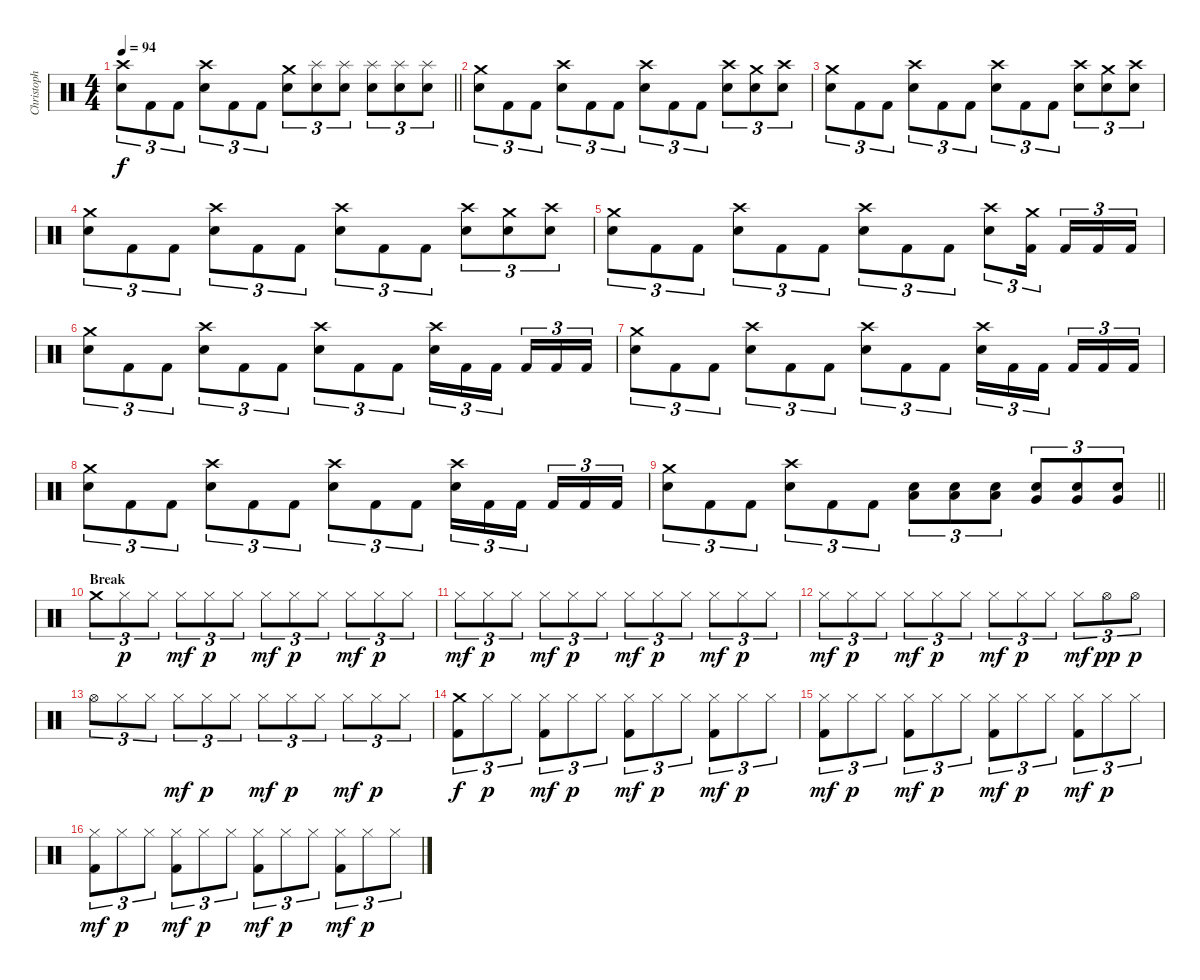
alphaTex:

\track ("Christoph Schneider [Drums]" "Christoph ") {instrument percussion}
\staff {score}
\articulation defaults
\ts (4 4)
\tempo 94
\clef neutral
\barLineRight lightlight
\ks c
("Crash high (hit)" "Electric Snare (hit)").8{tu (3 2) dy f} "Kick (hit) 2".8{tu (3 2)} "Kick (hit) 2".8{tu (3 2)} ("Crash high (hit)" "Electric Snare (hit)").8{tu (3 2)} "Kick (hit) 2".8{tu (3 2)} "Kick (hit) 2".8{tu (3 2)} ("Crash medium (hit)" "Electric Snare (hit)").8{tu (3 2)} ("Splash (hit)" "Electric Snare (hit)").8{tu (3 2)} ("Splash (hit)" "Electric Snare (hit)").8{tu (3 2)} ("Splash (hit)" "Electric Snare (hit)").8{tu (3 2)} ("Splash (hit)" "Electric Snare (hit)").8{tu (3 2)} ("Splash (hit)" "Electric Snare (hit)").8{tu (3 2)} |
\section ("" "")
("Crash medium (hit)" "Electric Snare (hit)").8{tu (3 2)} "Kick (hit) 2".8{tu (3 2)} "Kick (hit) 2".8{tu (3 2)} ("Crash high (hit)" "Electric Snare (hit)").8{tu (3 2)} "Kick (hit) 2".8{tu (3 2)} "Kick (hit) 2".8{tu (3 2)} ("Crash high (hit)" "Electric Snare (hit)").8{tu (3 2)} "Kick (hit) 2".8{tu (3 2)} "Kick (hit) 2".8{tu (3 2)} ("Crash high (hit)" "Electric Snare (hit)").8{tu (3 2)} ("Crash medium (hit)" "Electric Snare (hit)").8{tu (3 2)} ("Crash high (hit)" "Electric Snare (hit)").8{tu (3 2)} |
("Crash medium (hit)" "Electric Snare (hit)").8{tu (3 2)} "Kick (hit) 2".8{tu (3 2)} "Kick (hit) 2".8{tu (3 2)} ("Crash high (hit)" "Electric Snare (hit)").8{tu (3 2)} "Kick (hit) 2".8{tu (3 2)} "Kick (hit) 2".8{tu (3 2)} ("Crash high (hit)" "Electric Snare (hit)").8{tu (3 2)} "Kick (hit) 2".8{tu (3 2)} "Kick (hit) 2".8{tu (3 2)} ("Crash high (hit)" "Electric Snare (hit)").8{tu (3 2)} ("Crash medium (hit)" "Electric Snare (hit)").8{tu (3 2)} ("Crash high (hit)" "Electric Snare (hit)").8{tu (3 2)} |
("Crash medium (hit)" "Electric Snare (hit)").8{tu (3 2)} "Kick (hit) 2".8{tu (3 2)} "Kick (hit) 2".8{tu (3 2)} ("Crash high (hit)" "Electric Snare (hit)").8{tu (3 2)} "Kick (hit) 2".8{tu (3 2)} "Kick (hit) 2".8{tu (3 2)} ("Crash high (hit)" "Electric Snare (hit)").8{tu (3 2)} "Kick (hit) 2".8{tu (3 2)} "Kick (hit) 2".8{tu (3 2)} ("Crash high (hit)" "Electric Snare (hit)").8{tu (3 2)} ("Crash medium (hit)" "Electric Snare (hit)").8{tu (3 2)} ("Crash high (hit)" "Electric Snare (hit)").8{tu (3 2)} |
("Crash medium (hit)" "Electric Snare (hit)").8{tu (3 2)} "Kick (hit) 2".8{tu (3 2)} "Kick (hit) 2".8{tu (3 2)} ("Crash high (hit)" "Electric Snare (hit)").8{tu (3 2)} "Kick (hit) 2".8{tu (3 2)} "Kick (hit) 2".8{tu (3 2)} ("Crash high (hit)" "Electric Snare (hit)").8{tu (3 2)} "Kick (hit) 2".8{tu (3 2)} "Kick (hit) 2".8{tu (3 2)} ("Crash high (hit)" "Electric Snare (hit)").8{tu (3 2)} ("Crash medium (hit)" "Kick (hit) 2").16{tu (3 2)} "Kick (hit) 2".16{tu (3 2)} "Kick (hit) 2".16{tu (3 2)} "Kick (hit) 2".16{tu (3 2)} |
("Crash medium (hit)" "Electric Snare (hit)").8{tu (3 2)} "Kick (hit) 2".8{tu (3 2)} "Kick (hit) 2".8{tu (3 2)} ("Crash high (hit)" "Electric Snare (hit)").8{tu (3 2)} "Kick (hit) 2".8{tu (3 2)} "Kick (hit) 2".8{tu (3 2)} ("Crash high (hit)" "Electric Snare (hit)").8{tu (3 2)} "Kick (hit) 2".8{tu (3 2)} "Kick (hit) 2".8{tu (3 2)} ("Crash high (hit)" "Electric Snare (hit)").16{tu (3 2)} "Kick (hit) 2".16{tu (3 2)} "Kick (hit) 2".16{tu (3 2)} "Kick (hit) 2".16{tu (3 2)} "Kick (hit) 2".16{tu (3 2)} "Kick (hit) 2".16{tu (3 2)} |
("Crash medium (hit)" "Electric Snare (hit)").8{tu (3 2)} "Kick (hit) 2".8{tu (3 2)} "Kick (hit) 2".8{tu (3 2)} ("Crash high (hit)" "Electric Snare (hit)").8{tu (3 2)} "Kick (hit) 2".8{tu (3 2)} "Kick (hit) 2".8{tu (3 2)} ("Crash high (hit)" "Electric Snare (hit)").8{tu (3 2)} "Kick (hit) 2".8{tu (3 2)} "Kick (hit) 2".8{tu (3 2)} ("Crash high (hit)" "Electric Snare (hit)").16{tu (3 2)} "Kick (hit) 2".16{tu (3 2)} "Kick (hit) 2".16{tu (3 2)} "Kick (hit) 2".16{tu (3 2)} "Kick (hit) 2".16{tu (3 2)} "Kick (hit) 2".16{tu (3 2)} |
("Crash medium (hit)" "Electric Snare (hit)").8{tu (3 2)} "Kick (hit) 2".8{tu (3 2)} "Kick (hit) 2".8{tu (3 2)} ("Crash high (hit)" "Electric Snare (hit)").8{tu (3 2)} "Kick (hit) 2".8{tu (3 2)} "Kick (hit) 2".8{tu (3 2)} ("Crash high (hit)" "Electric Snare (hit)").8{tu (3 2)} "Kick (hit) 2".8{tu (3 2)} "Kick (hit) 2".8{tu (3 2)} ("Crash high (hit)" "Electric Snare (hit)").16{tu (3 2)} "Kick (hit) 2".16{tu (3 2)} "Kick (hit) 2".16{tu (3 2)} "Kick (hit) 2".16{tu (3 2)} "Kick (hit) 2".16{tu (3 2)} "Kick (hit) 2".16{tu (3 2)} |
\barLineRight lightlight
("Crash medium (hit)" "Electric Snare (hit)").8{tu (3 2)} "Kick (hit) 2".8{tu (3 2)} "Kick (hit) 2".8{tu (3 2)} ("Crash high (hit)" "Electric Snare (hit)").8{tu (3 2)} "Kick (hit) 2".8{tu (3 2)} "Kick (hit) 2".8{tu (3 2)} ("Low Tom (hit)" "Electric Snare (hit)").8{tu (3 2)} ("Low Tom (hit)" "Electric Snare (hit)").8{tu (3 2)} ("Low Tom (hit)" "Electric Snare (hit)").8{tu (3 2)} ("Very Low Tom (hit)" "Electric Snare (hit)").8{tu (3 2)} ("Very Low Tom (hit)" "Electric Snare (hit)").8{tu (3 2)} ("Very Low Tom (hit)" "Electric Snare (hit)").8{tu (3 2)} |
\section ("" "Break")
"Crash medium (hit)".8{tu (3 2)} "Hi-Hat (closed)".8{tu (3 2) dy p} "Hi-Hat (closed)".8{tu (3 2)} "Hi-Hat (closed)".8{tu (3 2) dy mf} "Hi-Hat (closed)".8{tu (3 2) dy p} "Hi-Hat (closed)".8{tu (3 2)} "Hi-Hat (closed)".8{tu (3 2) dy mf} "Hi-Hat (closed)".8{tu (3 2) dy p} "Hi-Hat (closed)".8{tu (3 2)} "Hi-Hat (closed)".8{tu (3 2) dy mf} "Hi-Hat (closed)".8{tu (3 2) dy p} "Hi-Hat (closed)".8{tu (3 2)} |
"Hi-Hat (closed)".8{tu (3 2) dy mf} "Hi-Hat (closed)".8{tu (3 2) dy p} "Hi-Hat (closed)".8{tu (3 2)} "Hi-Hat (closed)".8{tu (3 2) dy mf} "Hi-Hat (closed)".8{tu (3 2) dy p} "Hi-Hat (closed)".8{tu (3 2)} "Hi-Hat (closed)".8{tu (3 2) dy mf} "Hi-Hat (closed)".8{tu (3 2) dy p} "Hi-Hat (closed)".8{tu (3 2)} "Hi-Hat (closed)".8{tu (3 2) dy mf} "Hi-Hat (closed)".8{tu (3 2) dy p} "Hi-Hat (closed)".8{tu (3 2)} |
"Hi-Hat (closed)".8{tu (3 2) dy mf} "Hi-Hat (closed)".8{tu (3 2) dy p} "Hi-Hat (closed)".8{tu (3 2)} "Hi-Hat (closed)".8{tu (3 2) dy mf} "Hi-Hat (closed)".8{tu (3 2) dy p} "Hi-Hat (closed)".8{tu (3 2)} "Hi-Hat (closed)".8{tu (3 2) dy mf} "Hi-Hat (closed)".8{tu (3 2) dy p} "Hi-Hat (closed)".8{tu (3 2)} "Hi-Hat (closed)".8{tu (3 2) dy mf} "Hi-Hat (open)".8{tu (3 2) dy pp} "Hi-Hat (open)".8{tu (3 2) dy p} |
"Hi-Hat (open)".8{tu (3 2)} "Hi-Hat (closed)".8{tu (3 2)} "Hi-Hat (closed)".8{tu (3 2)} "Hi-Hat (closed)".8{tu (3 2) dy mf} "Hi-Hat (closed)".8{tu (3 2) dy p} "Hi-Hat (closed)".8{tu (3 2)} "Hi-Hat (closed)".8{tu (3 2) dy mf} "Hi-Hat (closed)".8{tu (3 2) dy p} "Hi-Hat (closed)".8{tu (3 2)} "Hi-Hat (closed)".8{tu (3 2) dy mf} "Hi-Hat (closed)".8{tu (3 2) dy p} "Hi-Hat (closed)".8{tu (3 2)} |
("Crash medium (hit)" "Kick (hit) 2").8{tu (3 2) dy f} "Hi-Hat (closed)".8{tu (3 2) dy p} "Hi-Hat (closed)".8{tu (3 2)} ("Hi-Hat (closed)" "Kick (hit) 2").8{tu (3 2) dy mf} "Hi-Hat (closed)".8{tu (3 2) dy p} "Hi-Hat (closed)".8{tu (3 2)} ("Hi-Hat (closed)" "Kick (hit) 2").8{tu (3 2) dy mf} "Hi-Hat (closed)".8{tu (3 2) dy p} "Hi-Hat (closed)".8{tu (3 2)} ("Hi-Hat (closed)" "Kick (hit) 2").8{tu (3 2) dy mf} "Hi-Hat (closed)".8{tu (3 2) dy p} "Hi-Hat (closed)".8{tu (3 2)} |
("Hi-Hat (closed)" "Kick (hit) 2").8{tu (3 2) dy mf} "Hi-Hat (closed)".8{tu (3 2) dy p} "Hi-Hat (closed)".8{tu (3 2)} ("Hi-Hat (closed)" "Kick (hit) 2").8{tu (3 2) dy mf} "Hi-Hat (closed)".8{tu (3 2) dy p} "Hi-Hat (closed)".8{tu (3 2)} ("Hi-Hat (closed)" "Kick (hit) 2").8{tu (3 2) dy mf} "Hi-Hat (closed)".8{tu (3 2) dy p} "Hi-Hat (closed)".8{tu (3 2)} ("Hi-Hat (closed)" "Kick (hit) 2").8{tu (3 2) dy mf} "Hi-Hat (closed)".8{tu (3 2) dy p} "Hi-Hat (closed)".8{tu (3 2)} |
("Hi-Hat (closed)" "Kick (hit) 2").8{tu (3 2) dy mf} "Hi-Hat (closed)".8{tu (3 2) dy p} "Hi-Hat (closed)".8{tu (3 2)} ("Hi-Hat (closed)" "Kick (hit) 2").8{tu (3 2) dy mf} "Hi-Hat (closed)".8{tu (3 2) dy p} "Hi-Hat (closed)".8{tu (3 2)} ("Hi-Hat (closed)" "Kick (hit) 2").8{tu (3 2) dy mf} "Hi-Hat (closed)".8{tu (3 2) dy p} "Hi-Hat (closed)".8{tu (3 2)} ("Hi-Hat (closed)" "Kick (hit) 2").8{tu (3 2) dy mf} "Hi-Hat (closed)".8{tu (3 2) dy p} "Hi-Hat (closed)".8{tu (3 2)}
